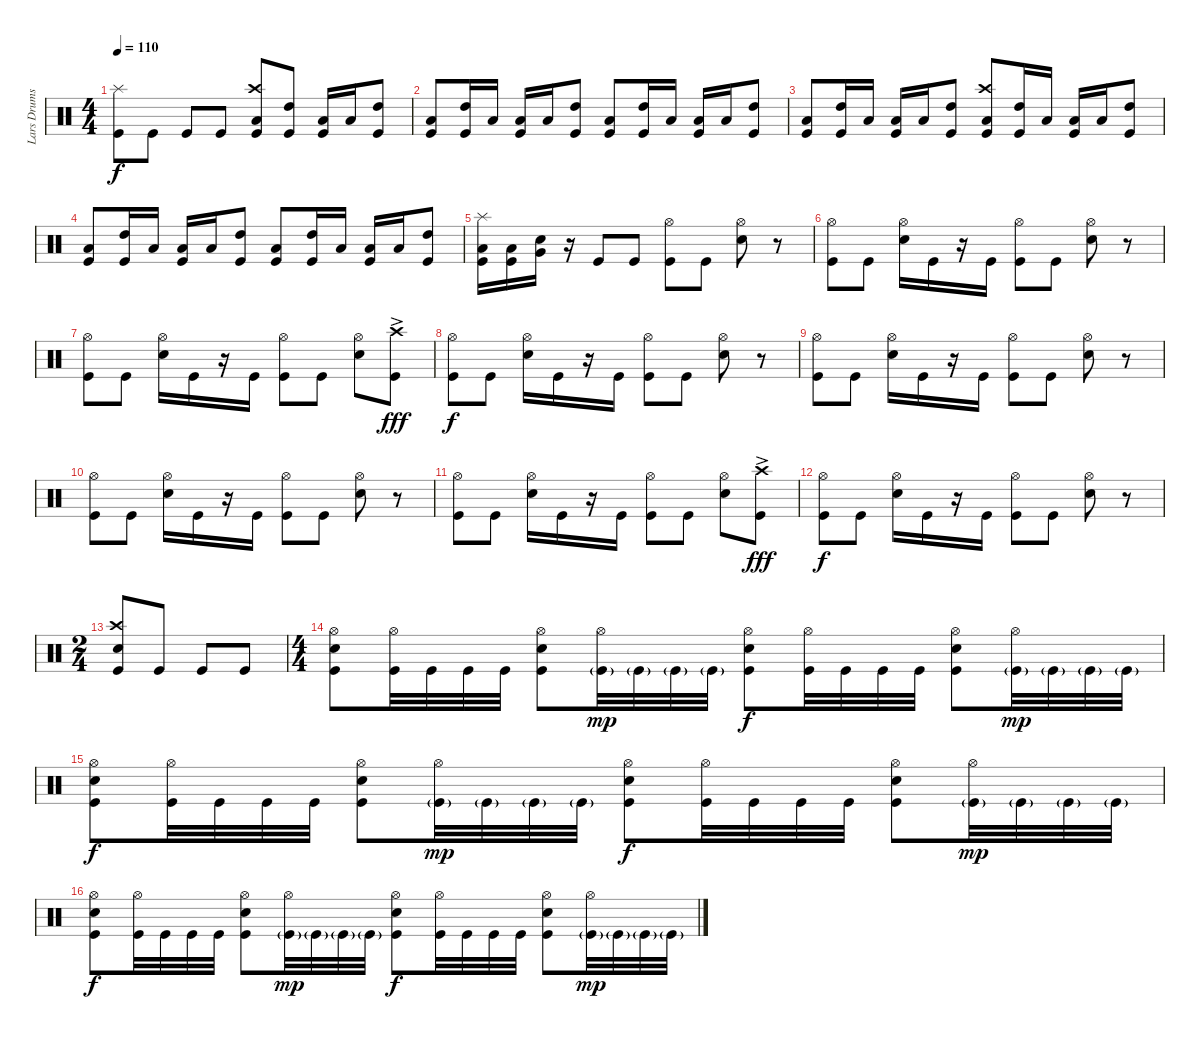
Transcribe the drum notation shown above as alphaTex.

\track ("Lars Drums" "Lars Drums") {instrument percussion}
\staff {score}
\articulation defaults
\ts (4 4)
\tempo 110
\clef neutral
\ks c
("Splash (hit)" "Kick (hit)").8{dy f} "Kick (hit)".8 "Kick (hit)".8 "Kick (hit)".8 ("Crash high (hit)" "Low Floor Tom (hit)" "Kick (hit)").8 ("High Tom (hit)" "Kick (hit)").8 ("Low Floor Tom (hit)" "Kick (hit)").16 "Low Floor Tom (hit)".16 ("High Tom (hit)" "Kick (hit)").8 |
("Low Floor Tom (hit)" "Kick (hit)").8 ("High Tom (hit)" "Kick (hit)").16 "Low Floor Tom (hit)".16 ("Low Floor Tom (hit)" "Kick (hit)").16 "Low Floor Tom (hit)".16 ("High Tom (hit)" "Kick (hit)").8 ("Low Floor Tom (hit)" "Kick (hit)").8 ("High Tom (hit)" "Kick (hit)").16 "Low Floor Tom (hit)".16 ("Low Floor Tom (hit)" "Kick (hit)").16 "Low Floor Tom (hit)".16 ("High Tom (hit)" "Kick (hit)").8 |
("Low Floor Tom (hit)" "Kick (hit)").8 ("High Tom (hit)" "Kick (hit)").16 "Low Floor Tom (hit)".16 ("Low Floor Tom (hit)" "Kick (hit)").16 "Low Floor Tom (hit)".16 ("High Tom (hit)" "Kick (hit)").8 ("Crash high (hit)" "Low Floor Tom (hit)" "Kick (hit)").8 ("High Tom (hit)" "Kick (hit)").16 "Low Floor Tom (hit)".16 ("Low Floor Tom (hit)" "Kick (hit)").16 "Low Floor Tom (hit)".16 ("High Tom (hit)" "Kick (hit)").8 |
("Low Floor Tom (hit)" "Kick (hit)").8 ("High Tom (hit)" "Kick (hit)").16 "Low Floor Tom (hit)".16 ("Low Floor Tom (hit)" "Kick (hit)").16 "Low Floor Tom (hit)".16 ("High Tom (hit)" "Kick (hit)").8 ("Low Floor Tom (hit)" "Kick (hit)").8 ("High Tom (hit)" "Kick (hit)").16 "Low Floor Tom (hit)".16 ("Low Floor Tom (hit)" "Kick (hit)").16 "Low Floor Tom (hit)".16 ("High Tom (hit)" "Kick (hit)").8 |
("Splash (hit)" "Low Floor Tom (hit)" "Kick (hit)").16 ("Low Floor Tom (hit)" "Kick (hit)").16 ("Very Low Tom (hit)" "Electric Snare (hit)").16 r.16 "Kick (hit)".8 "Kick (hit)".8 ("Hi-Hat (open)" "Kick (hit)").8 "Kick (hit)".8 ("Hi-Hat (open)" "Electric Snare (hit)").8 r.8 |
("Hi-Hat (open)" "Kick (hit)").8 "Kick (hit)".8 ("Hi-Hat (open)" "Electric Snare (hit)").16 "Kick (hit)".16 r.16 "Kick (hit)".16 ("Hi-Hat (open)" "Kick (hit)").8 "Kick (hit)".8 ("Hi-Hat (open)" "Electric Snare (hit)").8 r.8 |
("Hi-Hat (open)" "Kick (hit)").8 "Kick (hit)".8 ("Hi-Hat (open)" "Electric Snare (hit)").16 "Kick (hit)".16 r.16 "Kick (hit)".16 ("Hi-Hat (open)" "Kick (hit)").8 "Kick (hit)".8 ("Hi-Hat (open)" "Electric Snare (hit)").8 ("Crash high (hit)" "Kick (hit)"{ac}).8{dy fff} |
("Hi-Hat (open)" "Kick (hit)").8{dy f} "Kick (hit)".8 ("Hi-Hat (open)" "Electric Snare (hit)").16 "Kick (hit)".16 r.16 "Kick (hit)".16 ("Hi-Hat (open)" "Kick (hit)").8 "Kick (hit)".8 ("Hi-Hat (open)" "Electric Snare (hit)").8 r.8 |
("Hi-Hat (open)" "Kick (hit)").8 "Kick (hit)".8 ("Hi-Hat (open)" "Electric Snare (hit)").16 "Kick (hit)".16 r.16 "Kick (hit)".16 ("Hi-Hat (open)" "Kick (hit)").8 "Kick (hit)".8 ("Hi-Hat (open)" "Electric Snare (hit)").8 r.8 |
("Hi-Hat (open)" "Kick (hit)").8 "Kick (hit)".8 ("Hi-Hat (open)" "Electric Snare (hit)").16 "Kick (hit)".16 r.16 "Kick (hit)".16 ("Hi-Hat (open)" "Kick (hit)").8 "Kick (hit)".8 ("Hi-Hat (open)" "Electric Snare (hit)").8 r.8 |
("Hi-Hat (open)" "Kick (hit)").8 "Kick (hit)".8 ("Hi-Hat (open)" "Electric Snare (hit)").16 "Kick (hit)".16 r.16 "Kick (hit)".16 ("Hi-Hat (open)" "Kick (hit)").8 "Kick (hit)".8 ("Hi-Hat (open)" "Electric Snare (hit)").8 ("Crash high (hit)" "Kick (hit)"{ac}).8{dy fff} |
("Hi-Hat (open)" "Kick (hit)").8{dy f} "Kick (hit)".8 ("Hi-Hat (open)" "Electric Snare (hit)").16 "Kick (hit)".16 r.16 "Kick (hit)".16 ("Hi-Hat (open)" "Kick (hit)").8 "Kick (hit)".8 ("Hi-Hat (open)" "Electric Snare (hit)").8 r.8 |
\ts (2 4)
("Crash high (hit)" "Electric Snare (hit)" "Kick (hit)").8 "Kick (hit)".8 "Kick (hit)".8 "Kick (hit)".8 |
\ts (4 4)
("Hi-Hat (open)" "Electric Snare (hit)" "Kick (hit)").8 ("Hi-Hat (open)" "Kick (hit)").32 "Kick (hit)".32 "Kick (hit)".32 "Kick (hit)".32 ("Hi-Hat (open)" "Electric Snare (hit)" "Kick (hit)").8 ("Hi-Hat (open)" "Kick (hit)"{g}).32{dy mp} "Kick (hit)"{g}.32 "Kick (hit)"{g}.32 "Kick (hit)"{g}.32 ("Hi-Hat (open)" "Electric Snare (hit)" "Kick (hit)").8{dy f} ("Hi-Hat (open)" "Kick (hit)").32 "Kick (hit)".32 "Kick (hit)".32 "Kick (hit)".32 ("Hi-Hat (open)" "Electric Snare (hit)" "Kick (hit)").8 ("Hi-Hat (open)" "Kick (hit)"{g}).32{dy mp} "Kick (hit)"{g}.32 "Kick (hit)"{g}.32 "Kick (hit)"{g}.32 |
("Hi-Hat (open)" "Electric Snare (hit)" "Kick (hit)").8{dy f} ("Hi-Hat (open)" "Kick (hit)").32 "Kick (hit)".32 "Kick (hit)".32 "Kick (hit)".32 ("Hi-Hat (open)" "Electric Snare (hit)" "Kick (hit)").8 ("Hi-Hat (open)" "Kick (hit)"{g}).32{dy mp} "Kick (hit)"{g}.32 "Kick (hit)"{g}.32 "Kick (hit)"{g}.32 ("Hi-Hat (open)" "Electric Snare (hit)" "Kick (hit)").8{dy f} ("Hi-Hat (open)" "Kick (hit)").32 "Kick (hit)".32 "Kick (hit)".32 "Kick (hit)".32 ("Hi-Hat (open)" "Electric Snare (hit)" "Kick (hit)").8 ("Hi-Hat (open)" "Kick (hit)"{g}).32{dy mp} "Kick (hit)"{g}.32 "Kick (hit)"{g}.32 "Kick (hit)"{g}.32 |
("Hi-Hat (open)" "Electric Snare (hit)" "Kick (hit)").8{dy f} ("Hi-Hat (open)" "Kick (hit)").32 "Kick (hit)".32 "Kick (hit)".32 "Kick (hit)".32 ("Hi-Hat (open)" "Electric Snare (hit)" "Kick (hit)").8 ("Hi-Hat (open)" "Kick (hit)"{g}).32{dy mp} "Kick (hit)"{g}.32 "Kick (hit)"{g}.32 "Kick (hit)"{g}.32 ("Hi-Hat (open)" "Electric Snare (hit)" "Kick (hit)").8{dy f} ("Hi-Hat (open)" "Kick (hit)").32 "Kick (hit)".32 "Kick (hit)".32 "Kick (hit)".32 ("Hi-Hat (open)" "Electric Snare (hit)" "Kick (hit)").8 ("Hi-Hat (open)" "Kick (hit)"{g}).32{dy mp} "Kick (hit)"{g}.32 "Kick (hit)"{g}.32 "Kick (hit)"{g}.32
